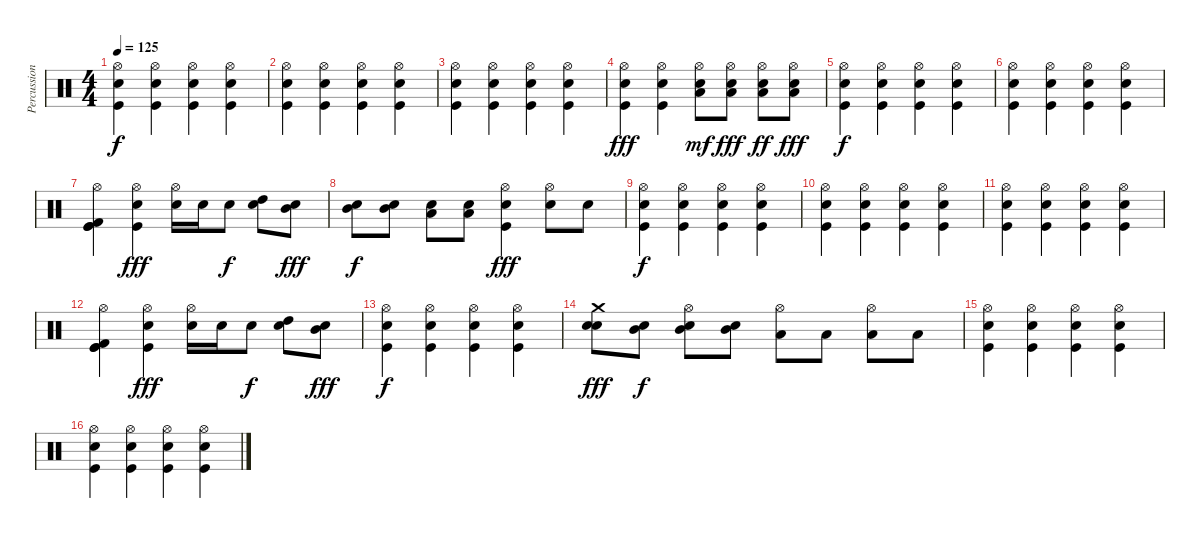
\track ("Percussion" "Percussion") {instrument percussion}
\staff {score}
\articulation defaults
\ts (4 4)
\tempo 125
\clef neutral
\ks c
("Hi-Hat (open)" "Snare (hit) 2" "Kick (hit)").4{dy f} ("Hi-Hat (open)" "Snare (hit) 2" "Kick (hit)").4 ("Hi-Hat (open)" "Snare (hit) 2" "Kick (hit)").4 ("Hi-Hat (open)" "Snare (hit) 2" "Kick (hit)").4 |
("Hi-Hat (open)" "Snare (hit) 2" "Kick (hit)").4 ("Hi-Hat (open)" "Snare (hit) 2" "Kick (hit)").4 ("Hi-Hat (open)" "Snare (hit) 2" "Kick (hit)").4 ("Hi-Hat (open)" "Snare (hit) 2" "Kick (hit)").4 |
("Hi-Hat (open)" "Snare (hit) 2" "Kick (hit)").4 ("Hi-Hat (open)" "Snare (hit) 2" "Kick (hit)").4 ("Hi-Hat (open)" "Snare (hit) 2" "Kick (hit)").4 ("Hi-Hat (open)" "Snare (hit) 2" "Kick (hit)").4 |
("Hi-Hat (open)" "Snare (hit) 2" "Kick (hit)").4{dy fff} ("Hi-Hat (open)" "Snare (hit) 2" "Kick (hit)").4 ("Hi-Hat (open)" "Low Tom (hit)" "Electric Snare (hit)").8{dy mf} ("Hi-Hat (open)" "Low Tom (hit)" "Electric Snare (hit)").8{dy fff} ("Hi-Hat (open)" "Low Tom (hit)" "Electric Snare (hit)").8{dy ff} ("Hi-Hat (open)" "Low Tom (hit)" "Electric Snare (hit)").8{dy fff} |
("Hi-Hat (open)" "Snare (hit) 2" "Kick (hit)").4{dy f} ("Hi-Hat (open)" "Snare (hit) 2" "Kick (hit)").4 ("Hi-Hat (open)" "Snare (hit) 2" "Kick (hit)").4 ("Hi-Hat (open)" "Snare (hit) 2" "Kick (hit)").4 |
("Hi-Hat (open)" "Snare (hit) 2" "Kick (hit)").4 ("Hi-Hat (open)" "Snare (hit) 2" "Kick (hit)").4 ("Hi-Hat (open)" "Snare (hit) 2" "Kick (hit)").4 ("Hi-Hat (open)" "Snare (hit) 2" "Kick (hit)").4 |
("Hi-Hat (open)" "Kick (hit)" "Kick (hit)" "Kick (hit) 2").4 ("Hi-Hat (open)" "Electric Snare (hit)" "Kick (hit)").4{dy fff} ("Hi-Hat (open)" "Snare (hit) 2").16 "Snare (hit) 2".16 "Snare (hit) 2".8{dy f} ("High Tom (hit)" "Snare (hit) 2").8 ("Mid Tom (hit)" "Snare (hit) 2").8{dy fff} |
("Mid Tom (hit)" "Snare (hit) 2").8{dy f} ("Mid Tom (hit)" "Snare (hit) 2").8 ("Low Tom (hit)" "Snare (hit) 2").8 ("Low Tom (hit)" "Snare (hit) 2").8 ("Hi-Hat (open)" "Electric Snare (hit)" "Kick (hit)").4{dy fff} ("Hi-Hat (open)" "Electric Snare (hit)").8 "Electric Snare (hit)".8 |
("Hi-Hat (open)" "Snare (hit) 2" "Kick (hit)").4{dy f} ("Hi-Hat (open)" "Snare (hit) 2" "Kick (hit)").4 ("Hi-Hat (open)" "Snare (hit) 2" "Kick (hit)").4 ("Hi-Hat (open)" "Snare (hit) 2" "Kick (hit)").4 |
("Hi-Hat (open)" "Snare (hit) 2" "Kick (hit)").4 ("Hi-Hat (open)" "Snare (hit) 2" "Kick (hit)").4 ("Hi-Hat (open)" "Snare (hit) 2" "Kick (hit)").4 ("Hi-Hat (open)" "Snare (hit) 2" "Kick (hit)").4 |
("Hi-Hat (open)" "Snare (hit) 2" "Kick (hit)").4 ("Hi-Hat (open)" "Snare (hit) 2" "Kick (hit)").4 ("Hi-Hat (open)" "Snare (hit) 2" "Kick (hit)").4 ("Hi-Hat (open)" "Snare (hit) 2" "Kick (hit)").4 |
("Hi-Hat (open)" "Kick (hit)" "Kick (hit)" "Kick (hit) 2").4 ("Hi-Hat (open)" "Electric Snare (hit)" "Kick (hit)").4{dy fff} ("Hi-Hat (open)" "Snare (hit) 2").16 "Snare (hit) 2".16 "Snare (hit) 2".8{dy f} ("High Tom (hit)" "Snare (hit) 2").8 ("Mid Tom (hit)" "Snare (hit) 2").8{dy fff} |
("Hi-Hat (open)" "Snare (hit) 2" "Kick (hit)").4{dy f} ("Hi-Hat (open)" "Snare (hit) 2" "Kick (hit)").4 ("Hi-Hat (open)" "Snare (hit) 2" "Kick (hit)").4 ("Hi-Hat (open)" "Snare (hit) 2" "Kick (hit)").4 |
("Crash medium (hit)" "Electric Snare (hit)" "Snare (hit) 2").8{dy fff} ("Mid Tom (hit)" "Snare (hit) 2").8{dy f} ("Hi-Hat (open)" "Mid Tom (hit)" "Snare (hit) 2").8 ("Mid Tom (hit)" "Snare (hit) 2").8 ("Hi-Hat (open)" "Low Tom (hit)").8 "Low Tom (hit)".8 ("Hi-Hat (open)" "Low Tom (hit)").8 "Low Tom (hit)".8 |
("Hi-Hat (open)" "Snare (hit) 2" "Kick (hit)").4 ("Hi-Hat (open)" "Snare (hit) 2" "Kick (hit)").4 ("Hi-Hat (open)" "Snare (hit) 2" "Kick (hit)").4 ("Hi-Hat (open)" "Snare (hit) 2" "Kick (hit)").4 |
("Hi-Hat (open)" "Snare (hit) 2" "Kick (hit)").4 ("Hi-Hat (open)" "Snare (hit) 2" "Kick (hit)").4 ("Hi-Hat (open)" "Snare (hit) 2" "Kick (hit)").4 ("Hi-Hat (open)" "Snare (hit) 2" "Kick (hit)").4
